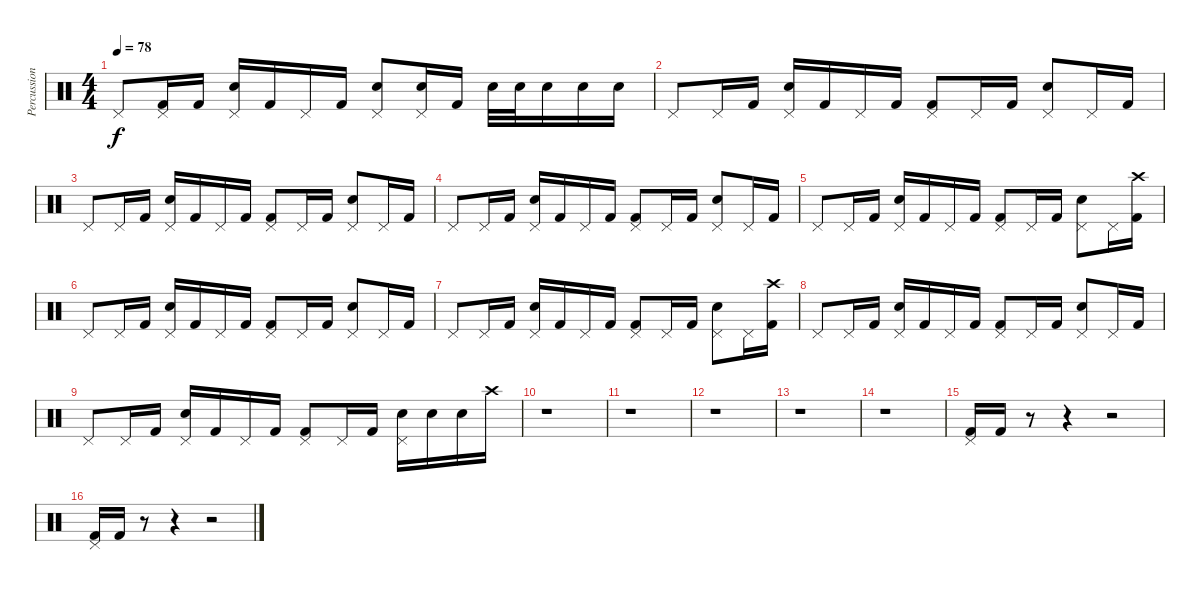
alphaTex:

\track ("Percussion" "Percussion") {instrument percussion}
\staff {score}
\articulation defaults
\ts (4 4)
\tempo 78
\clef neutral
\ks c "Pedal Hi-Hat (hit)".8{dy f}
("Pedal Hi-Hat (hit)" "Kick (hit) 2").16 "Kick (hit) 2".16 ("Pedal Hi-Hat (hit)" "Snare (hit) 2").16 "Kick (hit) 2".16 "Pedal Hi-Hat (hit)".16 "Kick (hit) 2".16 ("Pedal Hi-Hat (hit)" "Snare (hit) 2").8 ("Pedal Hi-Hat (hit)" "Snare (hit) 2").16 "Kick (hit) 2".16 "Snare (hit) 2".32 "Snare (hit) 2".32 "Snare (hit) 2".16 "Snare (hit) 2".16 "Snare (hit) 2".16 |
"Pedal Hi-Hat (hit)".8 "Pedal Hi-Hat (hit)".16 "Kick (hit) 2".16 ("Pedal Hi-Hat (hit)" "Snare (hit) 2").16 "Kick (hit) 2".16 "Pedal Hi-Hat (hit)".16 "Kick (hit) 2".16 ("Pedal Hi-Hat (hit)" "Kick (hit) 2").8 "Pedal Hi-Hat (hit)".16 "Kick (hit) 2".16 ("Pedal Hi-Hat (hit)" "Snare (hit) 2").8 "Pedal Hi-Hat (hit)".16 "Kick (hit) 2".16 |
"Pedal Hi-Hat (hit)".8 "Pedal Hi-Hat (hit)".16 "Kick (hit) 2".16 ("Pedal Hi-Hat (hit)" "Snare (hit) 2").16 "Kick (hit) 2".16 "Pedal Hi-Hat (hit)".16 "Kick (hit) 2".16 ("Pedal Hi-Hat (hit)" "Kick (hit) 2").8 "Pedal Hi-Hat (hit)".16 "Kick (hit) 2".16 ("Pedal Hi-Hat (hit)" "Snare (hit) 2").8 "Pedal Hi-Hat (hit)".16 "Kick (hit) 2".16 |
"Pedal Hi-Hat (hit)".8 "Pedal Hi-Hat (hit)".16 "Kick (hit) 2".16 ("Pedal Hi-Hat (hit)" "Snare (hit) 2").16 "Kick (hit) 2".16 "Pedal Hi-Hat (hit)".16 "Kick (hit) 2".16 ("Pedal Hi-Hat (hit)" "Kick (hit) 2").8 "Pedal Hi-Hat (hit)".16 "Kick (hit) 2".16 ("Pedal Hi-Hat (hit)" "Snare (hit) 2").8 "Pedal Hi-Hat (hit)".16 "Kick (hit) 2".16 |
"Pedal Hi-Hat (hit)".8 "Pedal Hi-Hat (hit)".16 "Kick (hit) 2".16 ("Pedal Hi-Hat (hit)" "Snare (hit) 2").16 "Kick (hit) 2".16 "Pedal Hi-Hat (hit)".16 "Kick (hit) 2".16 ("Pedal Hi-Hat (hit)" "Kick (hit) 2").8 "Pedal Hi-Hat (hit)".16 "Kick (hit) 2".16 ("Pedal Hi-Hat (hit)" "Snare (hit) 2").8 "Pedal Hi-Hat (hit)".16 ("Crash high (hit)" "Kick (hit) 2").16 |
"Pedal Hi-Hat (hit)".8 "Pedal Hi-Hat (hit)".16 "Kick (hit) 2".16 ("Pedal Hi-Hat (hit)" "Snare (hit) 2").16 "Kick (hit) 2".16 "Pedal Hi-Hat (hit)".16 "Kick (hit) 2".16 ("Pedal Hi-Hat (hit)" "Kick (hit) 2").8 "Pedal Hi-Hat (hit)".16 "Kick (hit) 2".16 ("Pedal Hi-Hat (hit)" "Snare (hit) 2").8 "Pedal Hi-Hat (hit)".16 "Kick (hit) 2".16 |
"Pedal Hi-Hat (hit)".8 "Pedal Hi-Hat (hit)".16 "Kick (hit) 2".16 ("Pedal Hi-Hat (hit)" "Snare (hit) 2").16 "Kick (hit) 2".16 "Pedal Hi-Hat (hit)".16 "Kick (hit) 2".16 ("Pedal Hi-Hat (hit)" "Kick (hit) 2").8 "Pedal Hi-Hat (hit)".16 "Kick (hit) 2".16 ("Pedal Hi-Hat (hit)" "Snare (hit) 2").8 "Pedal Hi-Hat (hit)".16 ("Crash high (hit)" "Kick (hit) 2").16 |
"Pedal Hi-Hat (hit)".8 "Pedal Hi-Hat (hit)".16 "Kick (hit) 2".16 ("Pedal Hi-Hat (hit)" "Snare (hit) 2").16 "Kick (hit) 2".16 "Pedal Hi-Hat (hit)".16 "Kick (hit) 2".16 ("Pedal Hi-Hat (hit)" "Kick (hit) 2").8 "Pedal Hi-Hat (hit)".16 "Kick (hit) 2".16 ("Pedal Hi-Hat (hit)" "Snare (hit) 2").8 "Pedal Hi-Hat (hit)".16 "Kick (hit) 2".16 |
"Pedal Hi-Hat (hit)".8 "Pedal Hi-Hat (hit)".16 "Kick (hit) 2".16 ("Pedal Hi-Hat (hit)" "Snare (hit) 2").16 "Kick (hit) 2".16 "Pedal Hi-Hat (hit)".16 "Kick (hit) 2".16 ("Pedal Hi-Hat (hit)" "Kick (hit) 2").8 "Pedal Hi-Hat (hit)".16 "Kick (hit) 2".16 ("Pedal Hi-Hat (hit)" "Snare (hit) 2").16 "Snare (hit) 2".16 "Snare (hit) 2".16 "Crash high (hit)".16 |
r.1 |
r.1 |
r.1 |
r.1 |
r.1 |
("Pedal Hi-Hat (hit)" "Kick (hit) 2").16 "Kick (hit) 2".16 r.8 r.4 r.2 |
("Pedal Hi-Hat (hit)" "Kick (hit) 2").16 "Kick (hit) 2".16 r.8 r.4 r.2
